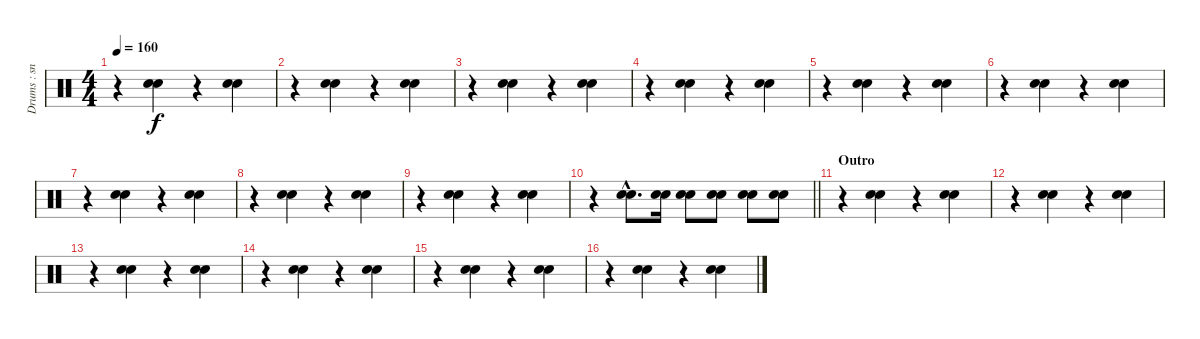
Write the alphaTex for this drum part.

\track ("Drums : snare" "Drums : sn") {instrument percussion}
\staff {score}
\articulation defaults
\ts (4 4)
\tempo 160
\clef neutral
\ks c
r.4{dy f} ("Snare (hit) 2" "Electric Snare (hit)").4 r.4 ("Snare (hit) 2" "Electric Snare (hit)").4 |
r.4 ("Snare (hit) 2" "Electric Snare (hit)").4 r.4 ("Snare (hit) 2" "Electric Snare (hit)").4 |
r.4 ("Snare (hit) 2" "Electric Snare (hit)").4 r.4 ("Snare (hit) 2" "Electric Snare (hit)").4 |
r.4 ("Snare (hit) 2" "Electric Snare (hit)").4 r.4 ("Snare (hit) 2" "Electric Snare (hit)").4 |
r.4 ("Snare (hit) 2" "Electric Snare (hit)").4 r.4 ("Snare (hit) 2" "Electric Snare (hit)").4 |
r.4 ("Snare (hit) 2" "Electric Snare (hit)").4 r.4 ("Snare (hit) 2" "Electric Snare (hit)").4 |
r.4 ("Snare (hit) 2" "Electric Snare (hit)").4 r.4 ("Snare (hit) 2" "Electric Snare (hit)").4 |
r.4 ("Snare (hit) 2" "Electric Snare (hit)").4 r.4 ("Snare (hit) 2" "Electric Snare (hit)").4 |
r.4 ("Snare (hit) 2" "Electric Snare (hit)").4 r.4 ("Snare (hit) 2" "Electric Snare (hit)").4 |
\barLineRight lightlight
r.4 ("Snare (hit) 2"{hac} "Electric Snare (hit)"{hac}).8{d} ("Snare (hit) 2" "Electric Snare (hit)").16 ("Snare (hit) 2" "Electric Snare (hit)").8 ("Snare (hit) 2" "Electric Snare (hit)").8 ("Snare (hit) 2" "Electric Snare (hit)").8 ("Snare (hit) 2" "Electric Snare (hit)").8 |
\section ("" "Outro")
r.4 ("Snare (hit) 2" "Electric Snare (hit)").4 r.4 ("Snare (hit) 2" "Electric Snare (hit)").4 |
r.4 ("Snare (hit) 2" "Electric Snare (hit)").4 r.4 ("Snare (hit) 2" "Electric Snare (hit)").4 |
r.4 ("Snare (hit) 2" "Electric Snare (hit)").4 r.4 ("Snare (hit) 2" "Electric Snare (hit)").4 |
r.4 ("Snare (hit) 2" "Electric Snare (hit)").4 r.4 ("Snare (hit) 2" "Electric Snare (hit)").4 |
r.4 ("Snare (hit) 2" "Electric Snare (hit)").4 r.4 ("Snare (hit) 2" "Electric Snare (hit)").4 |
r.4 ("Snare (hit) 2" "Electric Snare (hit)").4 r.4 ("Snare (hit) 2" "Electric Snare (hit)").4
